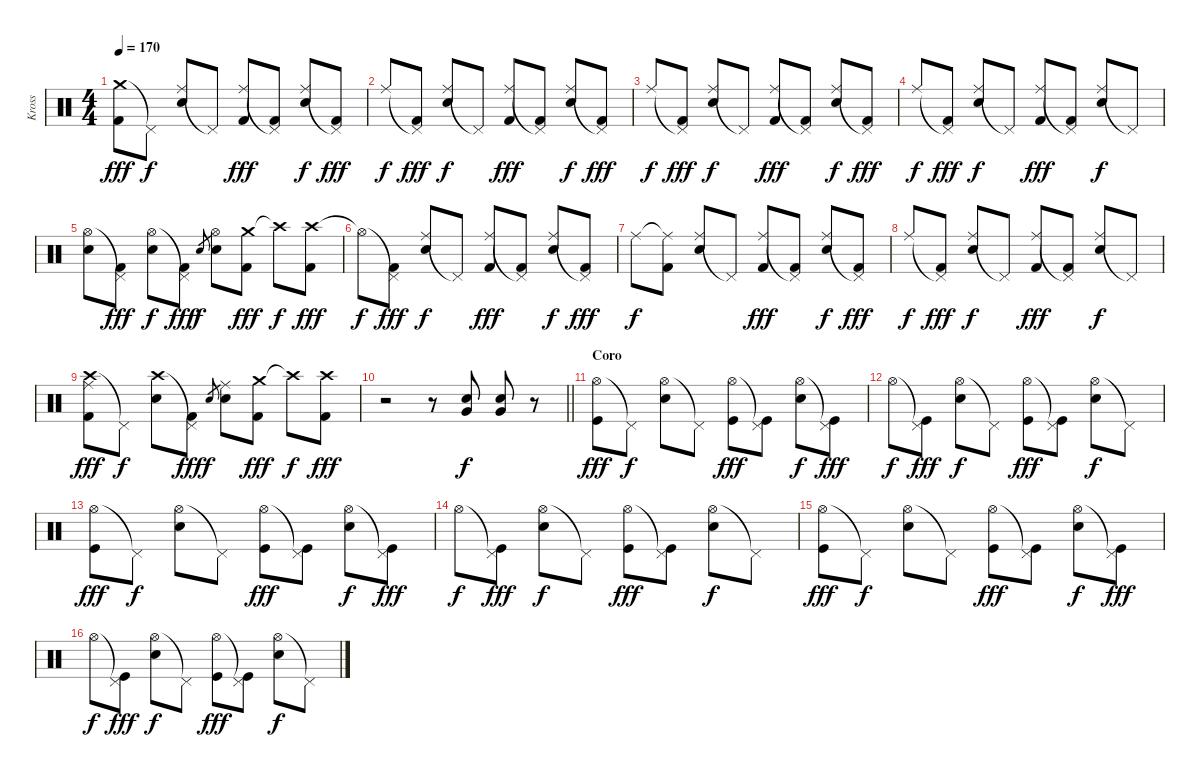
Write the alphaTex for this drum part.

\track ("Kross" "Kross") {instrument percussion}
\staff {score}
\articulation defaults
\ts (4 4)
\tempo 170
\clef neutral
\ks c
("Crash medium (hit)" "Kick (hit) 2").8{dy fff} "Pedal Hi-Hat (hit)"{t}.8{dy f} ("Ride (middle)" "Electric Snare (hit)").8 "Pedal Hi-Hat (hit)"{t}.8 ("Ride (middle)" "Kick (hit) 2").8{dy fff} ("Pedal Hi-Hat (hit)"{t} "Kick (hit) 2").8 ("Ride (middle)" "Electric Snare (hit)").8{dy f} ("Pedal Hi-Hat (hit)"{t} "Kick (hit) 2").8{dy fff} |
"Ride (middle)".8{dy f} ("Pedal Hi-Hat (hit)"{t} "Kick (hit) 2").8{dy fff} ("Ride (middle)" "Electric Snare (hit)").8{dy f} "Pedal Hi-Hat (hit)"{t}.8 ("Ride (middle)" "Kick (hit) 2").8{dy fff} ("Pedal Hi-Hat (hit)"{t} "Kick (hit) 2").8 ("Ride (middle)" "Electric Snare (hit)").8{dy f} ("Pedal Hi-Hat (hit)"{t} "Kick (hit) 2").8{dy fff} |
"Ride (middle)".8{dy f} ("Pedal Hi-Hat (hit)"{t} "Kick (hit) 2").8{dy fff} ("Ride (middle)" "Electric Snare (hit)").8{dy f} "Pedal Hi-Hat (hit)"{t}.8 ("Ride (middle)" "Kick (hit) 2").8{dy fff} ("Pedal Hi-Hat (hit)"{t} "Kick (hit) 2").8 ("Ride (middle)" "Electric Snare (hit)").8{dy f} ("Pedal Hi-Hat (hit)"{t} "Kick (hit) 2").8{dy fff} |
"Ride (middle)".8{dy f} ("Pedal Hi-Hat (hit)"{t} "Kick (hit) 2").8{dy fff} ("Ride (middle)" "Electric Snare (hit)").8{dy f} "Pedal Hi-Hat (hit)"{t}.8 ("Ride (middle)" "Kick (hit) 2").8{dy fff} ("Pedal Hi-Hat (hit)"{t} "Kick (hit) 2").8 ("Ride (middle)" "Electric Snare (hit)").8{dy f} "Pedal Hi-Hat (hit)"{t}.8 |
("Hi-Hat (open)" "Electric Snare (hit)").8 ("Pedal Hi-Hat (hit)"{t} "Kick (hit) 2").8{dy fff} ("Hi-Hat (open)" "Electric Snare (hit)").8{dy f} ("Pedal Hi-Hat (hit)"{t} "Kick (hit) 2").8{dy fff} "Electric Snare (hit)".8{gr dy f} ("Hi-Hat (open)" "Electric Snare (hit)").8 ("Crash medium (hit)" "Kick (hit) 2").8{dy fff} "Crash high (hit)"{t}.8{dy f} ("Crash high (hit)" "Kick (hit) 2").8{dy fff} |
"Hi-Hat (open)"{t}.8{dy f} ("Pedal Hi-Hat (hit)"{t} "Kick (hit) 2").8{dy fff} ("Ride (middle)" "Electric Snare (hit)").8{dy f} "Pedal Hi-Hat (hit)"{t}.8 ("Ride (middle)" "Kick (hit) 2").8{dy fff} ("Pedal Hi-Hat (hit)"{t} "Kick (hit) 2").8 ("Ride (middle)" "Electric Snare (hit)").8{dy f} ("Pedal Hi-Hat (hit)"{t} "Kick (hit) 2").8{dy fff} |
"Ride (middle)".8{dy f} ("Ride (middle)"{t} "Kick (hit) 2").8 ("Ride (middle)" "Electric Snare (hit)").8 "Pedal Hi-Hat (hit)"{t}.8 ("Ride (middle)" "Kick (hit) 2").8{dy fff} ("Pedal Hi-Hat (hit)"{t} "Kick (hit) 2").8 ("Ride (middle)" "Electric Snare (hit)").8{dy f} ("Pedal Hi-Hat (hit)"{t} "Kick (hit) 2").8{dy fff} |
"Ride (middle)".8{dy f} ("Pedal Hi-Hat (hit)"{t} "Kick (hit) 2").8{dy fff} ("Ride (middle)" "Electric Snare (hit)").8{dy f} "Pedal Hi-Hat (hit)"{t}.8 ("Ride (middle)" "Kick (hit) 2").8{dy fff} ("Pedal Hi-Hat (hit)"{t} "Kick (hit) 2").8 ("Ride (middle)" "Electric Snare (hit)").8{dy f} "Pedal Hi-Hat (hit)"{t}.8 |
("Crash high (hit)" "Ride (middle)" "Kick (hit) 2").8{dy fff} "Pedal Hi-Hat (hit)"{t}.8{dy f} ("Crash high (hit)" "Electric Snare (hit)").8 ("Pedal Hi-Hat (hit)"{t} "Kick (hit) 2").8{dy fff} "Electric Snare (hit)".8{gr dy f} ("Ride (middle)" "Electric Snare (hit)").8 ("Crash medium (hit)" "Kick (hit) 2").8{dy fff} "Crash high (hit)"{t}.8{dy f} ("Crash high (hit)" "Kick (hit) 2").8{dy fff} |
\barLineRight lightlight
r.2 r.8 ("Electric Snare (hit)" "Very Low Tom (hit)").8{dy f} ("Electric Snare (hit)" "Very Low Tom (hit)").8 r.8 |
\section ("" "Coro")
("Hi-Hat (open)" "Kick (hit)").8{dy fff} "Pedal Hi-Hat (hit)"{t}.8{dy f} ("Hi-Hat (open)" "Electric Snare (hit)").8 "Pedal Hi-Hat (hit)"{t}.8 ("Hi-Hat (open)" "Kick (hit)").8{dy fff} ("Pedal Hi-Hat (hit)"{t} "Kick (hit)").8 ("Hi-Hat (open)" "Electric Snare (hit)").8{dy f} ("Pedal Hi-Hat (hit)"{t} "Kick (hit)").8{dy fff} |
"Hi-Hat (open)".8{dy f} ("Pedal Hi-Hat (hit)"{t} "Kick (hit)").8{dy fff} ("Hi-Hat (open)" "Electric Snare (hit)").8{dy f} "Pedal Hi-Hat (hit)"{t}.8 ("Hi-Hat (open)" "Kick (hit)").8{dy fff} ("Pedal Hi-Hat (hit)"{t} "Kick (hit)").8 ("Hi-Hat (open)" "Electric Snare (hit)").8{dy f} "Pedal Hi-Hat (hit)"{t}.8 |
("Hi-Hat (open)" "Kick (hit)").8{dy fff} "Pedal Hi-Hat (hit)"{t}.8{dy f} ("Hi-Hat (open)" "Electric Snare (hit)").8 "Pedal Hi-Hat (hit)"{t}.8 ("Hi-Hat (open)" "Kick (hit)").8{dy fff} ("Pedal Hi-Hat (hit)"{t} "Kick (hit)").8 ("Hi-Hat (open)" "Electric Snare (hit)").8{dy f} ("Pedal Hi-Hat (hit)"{t} "Kick (hit)").8{dy fff} |
"Hi-Hat (open)".8{dy f} ("Pedal Hi-Hat (hit)"{t} "Kick (hit)").8{dy fff} ("Hi-Hat (open)" "Electric Snare (hit)").8{dy f} "Pedal Hi-Hat (hit)"{t}.8 ("Hi-Hat (open)" "Kick (hit)").8{dy fff} ("Pedal Hi-Hat (hit)"{t} "Kick (hit)").8 ("Hi-Hat (open)" "Electric Snare (hit)").8{dy f} "Pedal Hi-Hat (hit)"{t}.8 |
("Hi-Hat (open)" "Kick (hit)").8{dy fff} "Pedal Hi-Hat (hit)"{t}.8{dy f} ("Hi-Hat (open)" "Electric Snare (hit)").8 "Pedal Hi-Hat (hit)"{t}.8 ("Hi-Hat (open)" "Kick (hit)").8{dy fff} ("Pedal Hi-Hat (hit)"{t} "Kick (hit)").8 ("Hi-Hat (open)" "Electric Snare (hit)").8{dy f} ("Pedal Hi-Hat (hit)"{t} "Kick (hit)").8{dy fff} |
"Hi-Hat (open)".8{dy f} ("Pedal Hi-Hat (hit)"{t} "Kick (hit)").8{dy fff} ("Hi-Hat (open)" "Electric Snare (hit)").8{dy f} "Pedal Hi-Hat (hit)"{t}.8 ("Hi-Hat (open)" "Kick (hit)").8{dy fff} ("Pedal Hi-Hat (hit)"{t} "Kick (hit)").8 ("Hi-Hat (open)" "Electric Snare (hit)").8{dy f} "Pedal Hi-Hat (hit)"{t}.8
